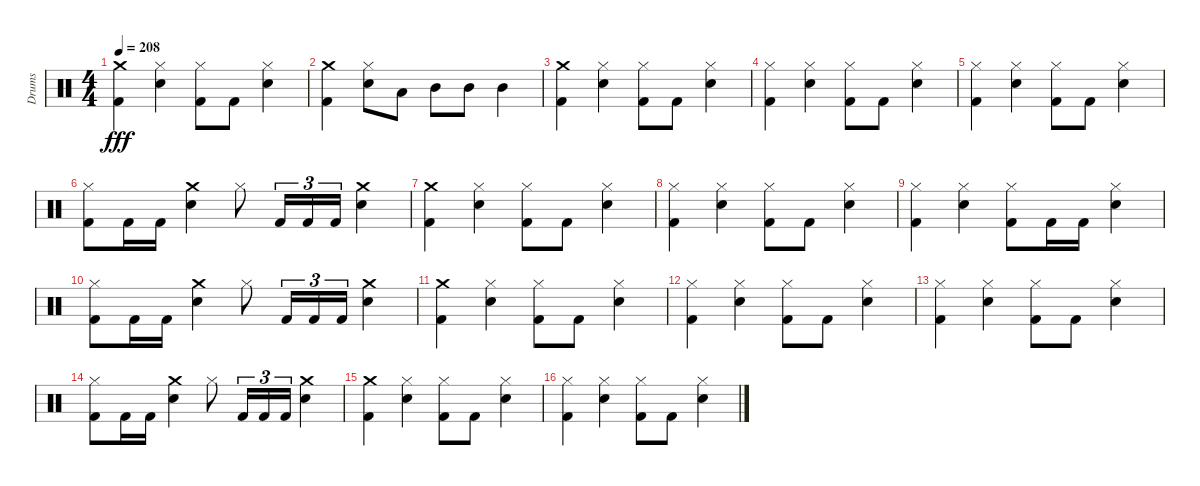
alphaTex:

\track ("Drums" "Drums") {instrument percussion}
\staff {score}
\articulation defaults
\ts (4 4)
\tempo 208
\clef neutral
\ks c
("Kick (hit) 2" "Crash medium (hit)").4{dy fff} ("Snare (hit) 2" "Hi-Hat (closed)").4 ("Kick (hit) 2" "Hi-Hat (closed)").8 "Kick (hit) 2".8 ("Snare (hit) 2" "Hi-Hat (closed)").4 |
("Kick (hit) 2" "Crash medium (hit)").4 ("Snare (hit) 2" "Hi-Hat (closed)").8 "Low Tom (hit)".8 "Mid Tom (hit)".8 "Mid Tom (hit)".8 "Mid Tom (hit)".4 |
("Kick (hit) 2" "Crash medium (hit)").4 ("Snare (hit) 2" "Hi-Hat (closed)").4 ("Kick (hit) 2" "Hi-Hat (closed)").8 "Kick (hit) 2".8 ("Snare (hit) 2" "Hi-Hat (closed)").4 |
("Hi-Hat (closed)" "Kick (hit) 2").4 ("Snare (hit) 2" "Hi-Hat (closed)").4 ("Hi-Hat (closed)" "Kick (hit) 2").8 "Kick (hit) 2".8 ("Snare (hit) 2" "Hi-Hat (closed)").4 |
("Kick (hit) 2" "Hi-Hat (closed)").4 ("Snare (hit) 2" "Hi-Hat (closed)").4 ("Hi-Hat (closed)" "Kick (hit) 2").8 "Kick (hit) 2".8 ("Snare (hit) 2" "Hi-Hat (closed)").4 |
("Hi-Hat (closed)" "Kick (hit) 2").8 "Kick (hit) 2".16 "Kick (hit) 2".16 ("Snare (hit) 2" "Crash medium (hit)").4 "Hi-Hat (closed)".8 "Kick (hit) 2".16{tu (3 2)} "Kick (hit) 2".16{tu (3 2)} "Kick (hit) 2".16{tu (3 2)} ("Snare (hit) 2" "Crash medium (hit)").4 |
("Crash medium (hit)" "Kick (hit) 2").4 ("Snare (hit) 2" "Hi-Hat (closed)").4 ("Kick (hit) 2" "Hi-Hat (closed)").8 "Kick (hit) 2".8 ("Snare (hit) 2" "Hi-Hat (closed)").4 |
("Kick (hit) 2" "Hi-Hat (closed)").4 ("Snare (hit) 2" "Hi-Hat (closed)").4 ("Hi-Hat (closed)" "Kick (hit) 2").8 "Kick (hit) 2".8 ("Snare (hit) 2" "Hi-Hat (closed)").4 |
("Kick (hit) 2" "Hi-Hat (closed)").4 ("Snare (hit) 2" "Hi-Hat (closed)").4 ("Hi-Hat (closed)" "Kick (hit) 2").8 "Kick (hit) 2".16 "Kick (hit) 2".16 ("Snare (hit) 2" "Hi-Hat (closed)").4 |
("Hi-Hat (closed)" "Kick (hit) 2").8 "Kick (hit) 2".16 "Kick (hit) 2".16 ("Snare (hit) 2" "Crash medium (hit)").4 "Hi-Hat (closed)".8 "Kick (hit) 2".16{tu (3 2)} "Kick (hit) 2".16{tu (3 2)} "Kick (hit) 2".16{tu (3 2)} ("Snare (hit) 2" "Crash medium (hit)").4 |
("Crash medium (hit)" "Kick (hit) 2").4 ("Snare (hit) 2" "Hi-Hat (closed)").4 ("Kick (hit) 2" "Hi-Hat (closed)").8 "Kick (hit) 2".8 ("Snare (hit) 2" "Hi-Hat (closed)").4 |
("Kick (hit) 2" "Hi-Hat (closed)").4 ("Snare (hit) 2" "Hi-Hat (closed)").4 ("Hi-Hat (closed)" "Kick (hit) 2").8 "Kick (hit) 2".8 ("Snare (hit) 2" "Hi-Hat (closed)").4 |
("Kick (hit) 2" "Hi-Hat (closed)").4 ("Snare (hit) 2" "Hi-Hat (closed)").4 ("Hi-Hat (closed)" "Kick (hit) 2").8 "Kick (hit) 2".8 ("Snare (hit) 2" "Hi-Hat (closed)").4 |
("Hi-Hat (closed)" "Kick (hit) 2").8 "Kick (hit) 2".16 "Kick (hit) 2".16 ("Snare (hit) 2" "Crash medium (hit)").4 "Hi-Hat (closed)".8 "Kick (hit) 2".16{tu (3 2)} "Kick (hit) 2".16{tu (3 2)} "Kick (hit) 2".16{tu (3 2)} ("Snare (hit) 2" "Crash medium (hit)").4 |
("Crash medium (hit)" "Kick (hit) 2").4 ("Snare (hit) 2" "Hi-Hat (closed)").4 ("Kick (hit) 2" "Hi-Hat (closed)").8 "Kick (hit) 2".8 ("Snare (hit) 2" "Hi-Hat (closed)").4 |
("Kick (hit) 2" "Hi-Hat (closed)").4 ("Snare (hit) 2" "Hi-Hat (closed)").4 ("Hi-Hat (closed)" "Kick (hit) 2").8 "Kick (hit) 2".8 ("Snare (hit) 2" "Hi-Hat (closed)").4
